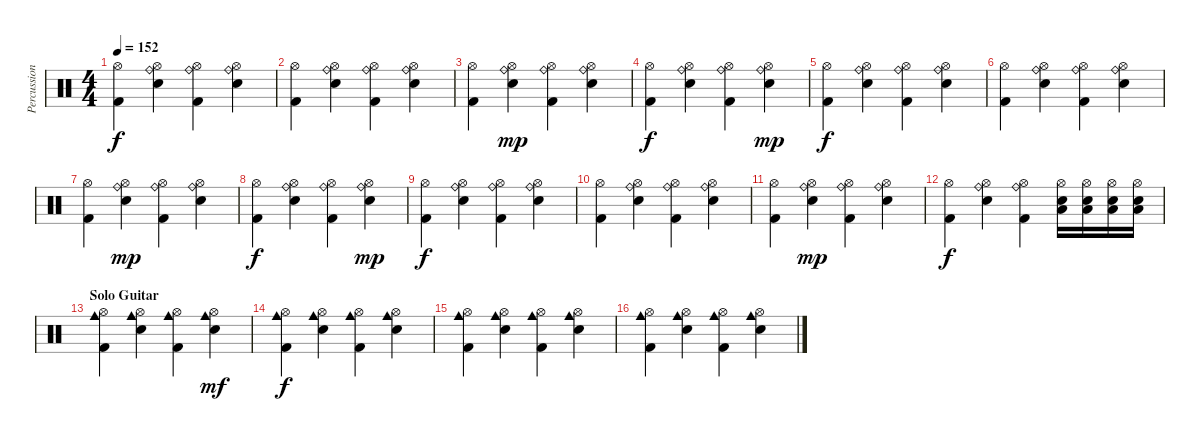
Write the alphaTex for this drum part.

\track ("Percussions" "Percussion") {instrument percussion}
\staff {score}
\articulation defaults
\ts (4 4)
\tempo 152
\clef neutral
\ks c
("Hi-Hat (open)" "Kick (hit) 2").4{dy f} ("Hi-Hat (open)" "Ride (bell)" "Electric Snare (hit)").4 ("Hi-Hat (open)" "Ride (bell)" "Kick (hit) 2").4 ("Hi-Hat (open)" "Ride (bell)" "Electric Snare (hit)").4 |
("Hi-Hat (open)" "Kick (hit) 2").4 ("Hi-Hat (open)" "Ride (bell)" "Electric Snare (hit)").4 ("Hi-Hat (open)" "Ride (bell)" "Kick (hit) 2").4 ("Hi-Hat (open)" "Ride (bell)" "Electric Snare (hit)").4 |
("Hi-Hat (open)" "Kick (hit) 2").4 ("Hi-Hat (open)" "Ride (bell)" "Electric Snare (hit)").4{dy mp} ("Hi-Hat (open)" "Ride (bell)" "Kick (hit) 2").4 ("Hi-Hat (open)" "Ride (bell)" "Electric Snare (hit)").4 |
("Hi-Hat (open)" "Kick (hit) 2").4{dy f} ("Hi-Hat (open)" "Ride (bell)" "Electric Snare (hit)").4 ("Hi-Hat (open)" "Ride (bell)" "Kick (hit) 2").4 ("Hi-Hat (open)" "Ride (bell)" "Electric Snare (hit)").4{dy mp} |
("Hi-Hat (open)" "Kick (hit) 2").4{dy f} ("Hi-Hat (open)" "Ride (bell)" "Electric Snare (hit)").4 ("Hi-Hat (open)" "Ride (bell)" "Kick (hit) 2").4 ("Hi-Hat (open)" "Ride (bell)" "Electric Snare (hit)").4 |
("Hi-Hat (open)" "Kick (hit) 2").4 ("Hi-Hat (open)" "Ride (bell)" "Electric Snare (hit)").4 ("Hi-Hat (open)" "Ride (bell)" "Kick (hit) 2").4 ("Hi-Hat (open)" "Ride (bell)" "Electric Snare (hit)").4 |
("Hi-Hat (open)" "Kick (hit) 2").4 ("Hi-Hat (open)" "Ride (bell)" "Electric Snare (hit)").4{dy mp} ("Hi-Hat (open)" "Ride (bell)" "Kick (hit) 2").4 ("Hi-Hat (open)" "Ride (bell)" "Electric Snare (hit)").4 |
("Hi-Hat (open)" "Kick (hit) 2").4{dy f} ("Hi-Hat (open)" "Ride (bell)" "Electric Snare (hit)").4 ("Hi-Hat (open)" "Ride (bell)" "Kick (hit) 2").4 ("Hi-Hat (open)" "Ride (bell)" "Electric Snare (hit)").4{dy mp} |
("Hi-Hat (open)" "Kick (hit) 2").4{dy f} ("Hi-Hat (open)" "Ride (bell)" "Electric Snare (hit)").4 ("Hi-Hat (open)" "Ride (bell)" "Kick (hit) 2").4 ("Hi-Hat (open)" "Ride (bell)" "Electric Snare (hit)").4 |
("Hi-Hat (open)" "Kick (hit) 2").4 ("Hi-Hat (open)" "Ride (bell)" "Electric Snare (hit)").4 ("Hi-Hat (open)" "Ride (bell)" "Kick (hit) 2").4 ("Hi-Hat (open)" "Ride (bell)" "Electric Snare (hit)").4 |
("Hi-Hat (open)" "Kick (hit) 2").4 ("Hi-Hat (open)" "Ride (bell)" "Electric Snare (hit)").4{dy mp} ("Hi-Hat (open)" "Ride (bell)" "Kick (hit) 2").4 ("Hi-Hat (open)" "Ride (bell)" "Electric Snare (hit)").4 |
("Hi-Hat (open)" "Kick (hit) 2").4{dy f} ("Hi-Hat (open)" "Ride (bell)" "Electric Snare (hit)").4 ("Hi-Hat (open)" "Ride (bell)" "Kick (hit) 2").4 ("Hi-Hat (open)" "Low Tom (hit)" "Electric Snare (hit)").16 ("Hi-Hat (open)" "Low Tom (hit)" "Electric Snare (hit)").16 ("Hi-Hat (open)" "Low Tom (hit)" "Electric Snare (hit)").16 ("Hi-Hat (open)" "Low Tom (hit)" "Electric Snare (hit)").16 |
\section ("" "Solo Guitar")
("Hi-Hat (open)" "Cowbell medium (hit)" "Kick (hit) 2").4 ("Hi-Hat (open)" "Cowbell medium (hit)" "Electric Snare (hit)").4 ("Hi-Hat (open)" "Cowbell medium (hit)" "Kick (hit) 2").4 ("Hi-Hat (open)" "Cowbell medium (hit)" "Electric Snare (hit)").4{dy mf} |
("Hi-Hat (open)" "Cowbell medium (hit)" "Kick (hit) 2").4{dy f} ("Hi-Hat (open)" "Cowbell medium (hit)" "Electric Snare (hit)").4 ("Hi-Hat (open)" "Cowbell medium (hit)" "Kick (hit) 2").4 ("Hi-Hat (open)" "Cowbell medium (hit)" "Electric Snare (hit)").4 |
("Hi-Hat (open)" "Cowbell medium (hit)" "Kick (hit) 2").4 ("Hi-Hat (open)" "Cowbell medium (hit)" "Electric Snare (hit)").4 ("Hi-Hat (open)" "Cowbell medium (hit)" "Kick (hit) 2").4 ("Hi-Hat (open)" "Cowbell medium (hit)" "Electric Snare (hit)").4 |
("Hi-Hat (open)" "Cowbell medium (hit)" "Kick (hit) 2").4 ("Hi-Hat (open)" "Cowbell medium (hit)" "Electric Snare (hit)").4 ("Hi-Hat (open)" "Cowbell medium (hit)" "Kick (hit) 2").4 ("Hi-Hat (open)" "Cowbell medium (hit)" "Electric Snare (hit)").4
